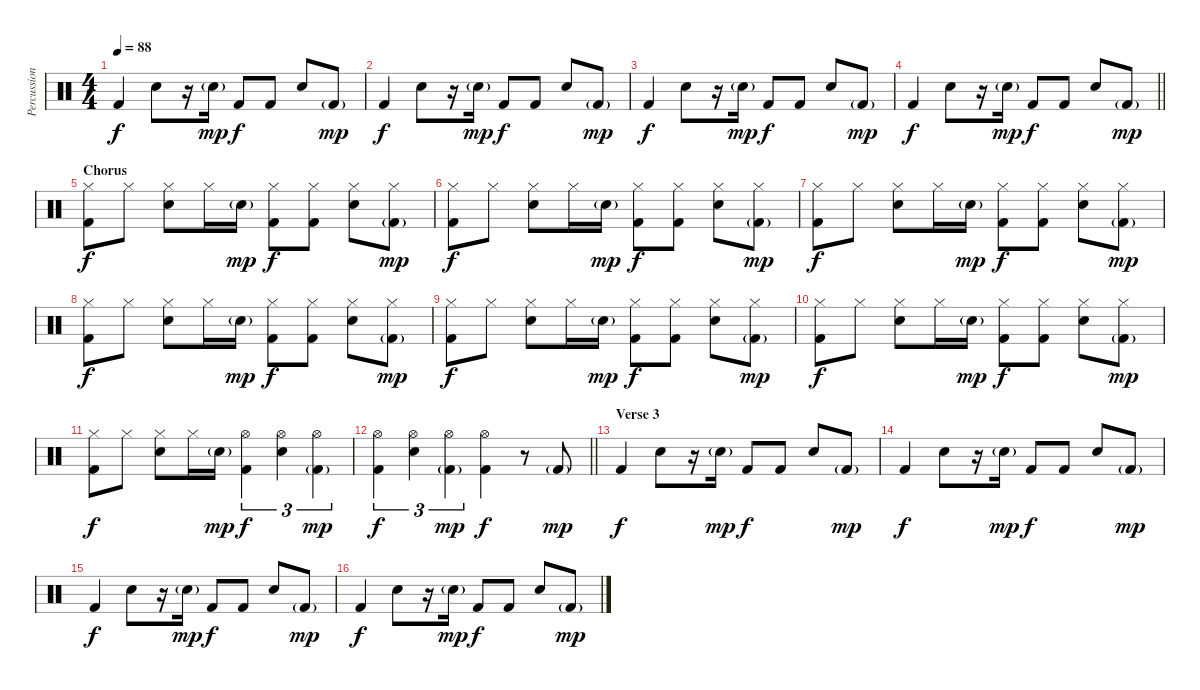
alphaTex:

\track ("Percussion" "Percussion") {instrument percussion}
\staff {score}
\articulation defaults
\ts (4 4)
\tempo 88
\clef neutral
\ks c "Kick (hit) 2".4{dy f} "Snare (hit) 2".8
r.16 "Snare (hit) 2"{g}.16{dy mp} "Kick (hit) 2".8{dy f} "Kick (hit) 2".8 "Snare (hit) 2".8 "Kick (hit) 2"{g}.8{dy mp} |
"Kick (hit) 2".4{dy f} "Snare (hit) 2".8 r.16 "Snare (hit) 2"{g}.16{dy mp} "Kick (hit) 2".8{dy f} "Kick (hit) 2".8 "Snare (hit) 2".8 "Kick (hit) 2"{g}.8{dy mp} |
"Kick (hit) 2".4{dy f} "Snare (hit) 2".8 r.16 "Snare (hit) 2"{g}.16{dy mp} "Kick (hit) 2".8{dy f} "Kick (hit) 2".8 "Snare (hit) 2".8 "Kick (hit) 2"{g}.8{dy mp} |
\barLineRight lightlight "Kick (hit) 2".4{dy f} "Snare (hit) 2".8
r.16 "Snare (hit) 2"{g}.16{dy mp} "Kick (hit) 2".8{dy f} "Kick (hit) 2".8 "Snare (hit) 2".8 "Kick (hit) 2"{g}.8{dy mp} |
\section ("" "Chorus")
("Hi-Hat (closed)" "Kick (hit) 2").8{dy f} "Hi-Hat (closed)".8 ("Hi-Hat (closed)" "Snare (hit) 2").8 "Hi-Hat (closed)".16 "Snare (hit) 2"{g}.16{dy mp} ("Hi-Hat (closed)" "Kick (hit) 2").8{dy f} ("Hi-Hat (closed)" "Kick (hit) 2").8 ("Hi-Hat (closed)" "Snare (hit) 2").8 ("Hi-Hat (closed)" "Kick (hit) 2"{g}).8{dy mp} |
("Hi-Hat (closed)" "Kick (hit) 2").8{dy f} "Hi-Hat (closed)".8 ("Hi-Hat (closed)" "Snare (hit) 2").8 "Hi-Hat (closed)".16 "Snare (hit) 2"{g}.16{dy mp} ("Hi-Hat (closed)" "Kick (hit) 2").8{dy f} ("Hi-Hat (closed)" "Kick (hit) 2").8 ("Hi-Hat (closed)" "Snare (hit) 2").8 ("Hi-Hat (closed)" "Kick (hit) 2"{g}).8{dy mp} |
("Hi-Hat (closed)" "Kick (hit) 2").8{dy f} "Hi-Hat (closed)".8 ("Hi-Hat (closed)" "Snare (hit) 2").8 "Hi-Hat (closed)".16 "Snare (hit) 2"{g}.16{dy mp} ("Hi-Hat (closed)" "Kick (hit) 2").8{dy f} ("Hi-Hat (closed)" "Kick (hit) 2").8 ("Hi-Hat (closed)" "Snare (hit) 2").8 ("Hi-Hat (closed)" "Kick (hit) 2"{g}).8{dy mp} |
("Hi-Hat (closed)" "Kick (hit) 2").8{dy f} "Hi-Hat (closed)".8 ("Hi-Hat (closed)" "Snare (hit) 2").8 "Hi-Hat (closed)".16 "Snare (hit) 2"{g}.16{dy mp} ("Hi-Hat (closed)" "Kick (hit) 2").8{dy f} ("Hi-Hat (closed)" "Kick (hit) 2").8 ("Hi-Hat (closed)" "Snare (hit) 2").8 ("Hi-Hat (closed)" "Kick (hit) 2"{g}).8{dy mp} |
("Hi-Hat (closed)" "Kick (hit) 2").8{dy f} "Hi-Hat (closed)".8 ("Hi-Hat (closed)" "Snare (hit) 2").8 "Hi-Hat (closed)".16 "Snare (hit) 2"{g}.16{dy mp} ("Hi-Hat (closed)" "Kick (hit) 2").8{dy f} ("Hi-Hat (closed)" "Kick (hit) 2").8 ("Hi-Hat (closed)" "Snare (hit) 2").8 ("Hi-Hat (closed)" "Kick (hit) 2"{g}).8{dy mp} |
("Hi-Hat (closed)" "Kick (hit) 2").8{dy f} "Hi-Hat (closed)".8 ("Hi-Hat (closed)" "Snare (hit) 2").8 "Hi-Hat (closed)".16 "Snare (hit) 2"{g}.16{dy mp} ("Hi-Hat (closed)" "Kick (hit) 2").8{dy f} ("Hi-Hat (closed)" "Kick (hit) 2").8 ("Hi-Hat (closed)" "Snare (hit) 2").8 ("Hi-Hat (closed)" "Kick (hit) 2"{g}).8{dy mp} |
("Hi-Hat (closed)" "Kick (hit) 2").8{dy f} "Hi-Hat (closed)".8 ("Hi-Hat (closed)" "Snare (hit) 2").8 "Hi-Hat (closed)".16 "Snare (hit) 2"{g}.16{dy mp} ("Hi-Hat (open)" "Kick (hit) 2").4{tu (3 2) dy f} ("Hi-Hat (open)" "Snare (hit) 2").4{tu (3 2)} ("Hi-Hat (open)" "Kick (hit) 2"{g}).4{tu (3 2) dy mp} |
\barLineRight lightlight
("Hi-Hat (open)" "Kick (hit) 2").4{tu (3 2) dy f} ("Hi-Hat (open)" "Snare (hit) 2").4{tu (3 2)} ("Hi-Hat (open)" "Kick (hit) 2"{g}).4{tu (3 2) dy mp} ("Hi-Hat (open)" "Kick (hit) 2").4{dy f} r.8 "Kick (hit) 2"{g}.8{dy mp} |
\section ("" "Verse 3")
"Kick (hit) 2".4{dy f} "Snare (hit) 2".8 r.16 "Snare (hit) 2"{g}.16{dy mp} "Kick (hit) 2".8{dy f} "Kick (hit) 2".8 "Snare (hit) 2".8 "Kick (hit) 2"{g}.8{dy mp} |
"Kick (hit) 2".4{dy f} "Snare (hit) 2".8 r.16 "Snare (hit) 2"{g}.16{dy mp} "Kick (hit) 2".8{dy f} "Kick (hit) 2".8 "Snare (hit) 2".8 "Kick (hit) 2"{g}.8{dy mp} |
"Kick (hit) 2".4{dy f} "Snare (hit) 2".8 r.16 "Snare (hit) 2"{g}.16{dy mp} "Kick (hit) 2".8{dy f} "Kick (hit) 2".8 "Snare (hit) 2".8 "Kick (hit) 2"{g}.8{dy mp} |
"Kick (hit) 2".4{dy f} "Snare (hit) 2".8 r.16 "Snare (hit) 2"{g}.16{dy mp} "Kick (hit) 2".8{dy f} "Kick (hit) 2".8 "Snare (hit) 2".8 "Kick (hit) 2"{g}.8{dy mp}
